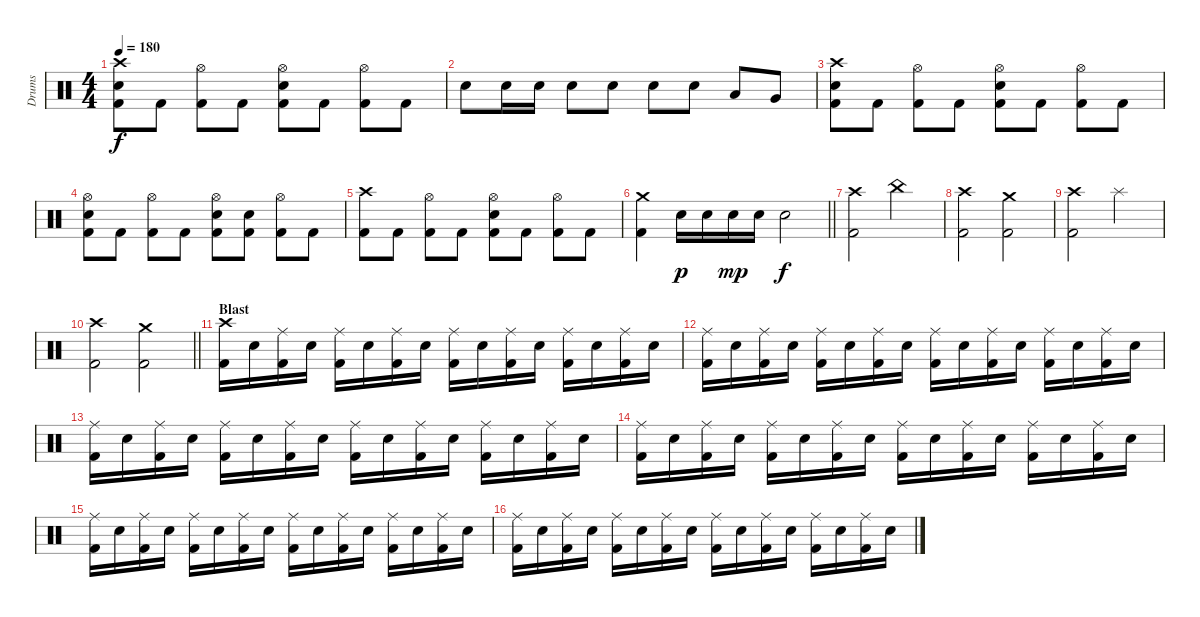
\track ("Drums" "Drums") {instrument percussion}
\staff {score}
\articulation defaults
\ts (4 4)
\tempo 180
\clef neutral
\ks c
("Crash high (hit)" "Electric Snare (hit)" "Kick (hit) 2").8{dy f} "Kick (hit) 2".8 ("Hi-Hat (open)" "Kick (hit) 2").8 "Kick (hit) 2".8 ("Hi-Hat (open)" "Electric Snare (hit)" "Kick (hit) 2").8 "Kick (hit) 2".8 ("Hi-Hat (open)" "Kick (hit) 2").8 "Kick (hit) 2".8 |
"Electric Snare (hit)".8 "Electric Snare (hit)".16 "Electric Snare (hit)".16 "Electric Snare (hit)".8 "Electric Snare (hit)".8 "Electric Snare (hit)".8 "Electric Snare (hit)".8 "Low Tom (hit)".8 "Very Low Tom (hit)".8 |
("Crash high (hit)" "Electric Snare (hit)" "Kick (hit) 2").8 "Kick (hit) 2".8 ("Hi-Hat (open)" "Kick (hit) 2").8 "Kick (hit) 2".8 ("Hi-Hat (open)" "Electric Snare (hit)" "Kick (hit) 2").8 "Kick (hit) 2".8 ("Hi-Hat (open)" "Kick (hit) 2").8 "Kick (hit) 2".8 |
("Hi-Hat (open)" "Electric Snare (hit)" "Kick (hit) 2").8 "Kick (hit) 2".8 ("Hi-Hat (open)" "Kick (hit) 2").8 "Kick (hit) 2".8 ("Hi-Hat (open)" "Electric Snare (hit)" "Kick (hit) 2").8 ("Electric Snare (hit)" "Kick (hit) 2").8 ("Hi-Hat (open)" "Kick (hit) 2").8 "Kick (hit) 2".8 |
("Crash high (hit)" "Kick (hit) 2").8 "Kick (hit) 2".8 ("Hi-Hat (open)" "Kick (hit) 2").8 "Kick (hit) 2".8 ("Hi-Hat (open)" "Electric Snare (hit)" "Kick (hit) 2").8 "Kick (hit) 2".8 ("Hi-Hat (open)" "Kick (hit) 2").8 "Kick (hit) 2".8 |
\barLineRight lightlight
("Crash medium (hit)" "Kick (hit) 2").4 "Electric Snare (hit)".16{dy p} "Electric Snare (hit)".16 "Electric Snare (hit)".16{dy mp} "Electric Snare (hit)".16 "Electric Snare (hit)".2{dy f} |
\section ("" "")
("Crash high (hit)" "Kick (hit) 2").2 "China (hit)".2 |
("Crash high (hit)" "Kick (hit) 2").2 ("Crash medium (hit)" "Kick (hit) 2").2 |
("Crash high (hit)" "Kick (hit) 2").2 "Splash (hit)".2 |
\barLineRight lightlight
("Crash high (hit)" "Kick (hit) 2").2 ("Crash medium (hit)" "Kick (hit) 2").2 |
\section ("" "Blast")
("Crash high (hit)" "Kick (hit) 2").16 "Electric Snare (hit)".16 ("Ride (middle)" "Kick (hit) 2").16 "Electric Snare (hit)".16 ("Ride (middle)" "Kick (hit) 2").16 "Electric Snare (hit)".16 ("Ride (middle)" "Kick (hit) 2").16 "Electric Snare (hit)".16 ("Ride (middle)" "Kick (hit) 2").16 "Electric Snare (hit)".16 ("Ride (middle)" "Kick (hit) 2").16 "Electric Snare (hit)".16 ("Ride (middle)" "Kick (hit) 2").16 "Electric Snare (hit)".16 ("Ride (middle)" "Kick (hit) 2").16 "Electric Snare (hit)".16 |
("Ride (middle)" "Kick (hit) 2").16 "Electric Snare (hit)".16 ("Ride (middle)" "Kick (hit) 2").16 "Electric Snare (hit)".16 ("Ride (middle)" "Kick (hit) 2").16 "Electric Snare (hit)".16 ("Ride (middle)" "Kick (hit) 2").16 "Electric Snare (hit)".16 ("Ride (middle)" "Kick (hit) 2").16 "Electric Snare (hit)".16 ("Ride (middle)" "Kick (hit) 2").16 "Electric Snare (hit)".16 ("Ride (middle)" "Kick (hit) 2").16 "Electric Snare (hit)".16 ("Ride (middle)" "Kick (hit) 2").16 "Electric Snare (hit)".16 |
("Ride (middle)" "Kick (hit) 2").16 "Electric Snare (hit)".16 ("Ride (middle)" "Kick (hit) 2").16 "Electric Snare (hit)".16 ("Ride (middle)" "Kick (hit) 2").16 "Electric Snare (hit)".16 ("Ride (middle)" "Kick (hit) 2").16 "Electric Snare (hit)".16 ("Ride (middle)" "Kick (hit) 2").16 "Electric Snare (hit)".16 ("Ride (middle)" "Kick (hit) 2").16 "Electric Snare (hit)".16 ("Ride (middle)" "Kick (hit) 2").16 "Electric Snare (hit)".16 ("Ride (middle)" "Kick (hit) 2").16 "Electric Snare (hit)".16 |
("Ride (middle)" "Kick (hit) 2").16 "Electric Snare (hit)".16 ("Ride (middle)" "Kick (hit) 2").16 "Electric Snare (hit)".16 ("Ride (middle)" "Kick (hit) 2").16 "Electric Snare (hit)".16 ("Ride (middle)" "Kick (hit) 2").16 "Electric Snare (hit)".16 ("Ride (middle)" "Kick (hit) 2").16 "Electric Snare (hit)".16 ("Ride (middle)" "Kick (hit) 2").16 "Electric Snare (hit)".16 ("Ride (middle)" "Kick (hit) 2").16 "Electric Snare (hit)".16 ("Ride (middle)" "Kick (hit) 2").16 "Electric Snare (hit)".16 |
("Ride (middle)" "Kick (hit) 2").16 "Electric Snare (hit)".16 ("Ride (middle)" "Kick (hit) 2").16 "Electric Snare (hit)".16 ("Ride (middle)" "Kick (hit) 2").16 "Electric Snare (hit)".16 ("Ride (middle)" "Kick (hit) 2").16 "Electric Snare (hit)".16 ("Ride (middle)" "Kick (hit) 2").16 "Electric Snare (hit)".16 ("Ride (middle)" "Kick (hit) 2").16 "Electric Snare (hit)".16 ("Ride (middle)" "Kick (hit) 2").16 "Electric Snare (hit)".16 ("Ride (middle)" "Kick (hit) 2").16 "Electric Snare (hit)".16 |
("Ride (middle)" "Kick (hit) 2").16 "Electric Snare (hit)".16 ("Ride (middle)" "Kick (hit) 2").16 "Electric Snare (hit)".16 ("Ride (middle)" "Kick (hit) 2").16 "Electric Snare (hit)".16 ("Ride (middle)" "Kick (hit) 2").16 "Electric Snare (hit)".16 ("Ride (middle)" "Kick (hit) 2").16 "Electric Snare (hit)".16 ("Ride (middle)" "Kick (hit) 2").16 "Electric Snare (hit)".16 ("Ride (middle)" "Kick (hit) 2").16 "Electric Snare (hit)".16 ("Ride (middle)" "Kick (hit) 2").16 "Electric Snare (hit)".16
